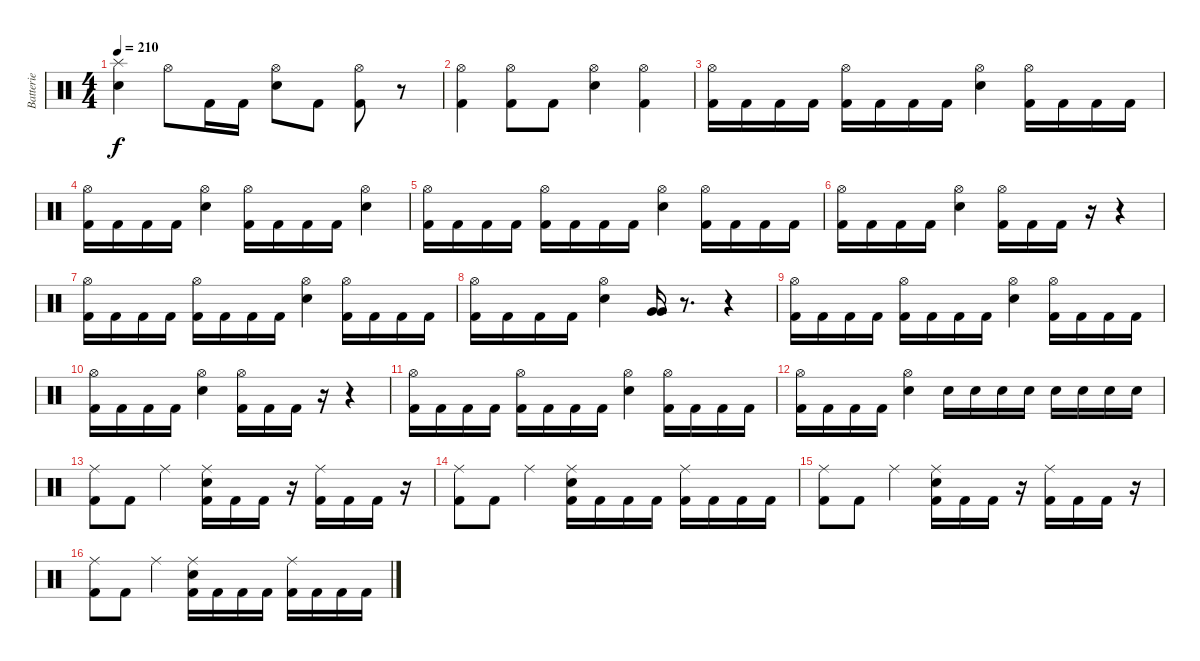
\track ("Batterie" "Batterie") {instrument percussion}
\staff {score}
\articulation defaults
\ts (4 4)
\tempo 210
\clef neutral
\ks c
("Splash (hit)" "Electric Snare (hit)").4{dy f} "Hi-Hat (open)".8 "Kick (hit) 2".16 "Kick (hit) 2".16 ("Hi-Hat (open)" "Electric Snare (hit)").8 "Kick (hit) 2".8 ("Hi-Hat (open)" "Kick (hit) 2").8 r.8 |
("Hi-Hat (open)" "Kick (hit) 2").4 ("Hi-Hat (open)" "Kick (hit) 2").8 "Kick (hit) 2".8 ("Hi-Hat (open)" "Electric Snare (hit)").4 ("Hi-Hat (open)" "Kick (hit) 2").4 |
("Hi-Hat (open)" "Kick (hit) 2").16 "Kick (hit) 2".16 "Kick (hit) 2".16 "Kick (hit) 2".16 ("Hi-Hat (open)" "Kick (hit) 2").16 "Kick (hit) 2".16 "Kick (hit) 2".16 "Kick (hit) 2".16 ("Hi-Hat (open)" "Electric Snare (hit)").4 ("Hi-Hat (open)" "Kick (hit) 2").16 "Kick (hit) 2".16 "Kick (hit) 2".16 "Kick (hit) 2".16 |
("Hi-Hat (open)" "Kick (hit) 2").16 "Kick (hit) 2".16 "Kick (hit) 2".16 "Kick (hit) 2".16 ("Hi-Hat (open)" "Electric Snare (hit)").4 ("Hi-Hat (open)" "Kick (hit) 2").16 "Kick (hit) 2".16 "Kick (hit) 2".16 "Kick (hit) 2".16 ("Hi-Hat (open)" "Electric Snare (hit)").4 |
("Hi-Hat (open)" "Kick (hit) 2").16 "Kick (hit) 2".16 "Kick (hit) 2".16 "Kick (hit) 2".16 ("Hi-Hat (open)" "Kick (hit) 2").16 "Kick (hit) 2".16 "Kick (hit) 2".16 "Kick (hit) 2".16 ("Hi-Hat (open)" "Electric Snare (hit)").4 ("Hi-Hat (open)" "Kick (hit) 2").16 "Kick (hit) 2".16 "Kick (hit) 2".16 "Kick (hit) 2".16 |
("Hi-Hat (open)" "Kick (hit) 2").16 "Kick (hit) 2".16 "Kick (hit) 2".16 "Kick (hit) 2".16 ("Hi-Hat (open)" "Electric Snare (hit)").4 ("Hi-Hat (open)" "Kick (hit) 2").16 "Kick (hit) 2".16 "Kick (hit) 2".16 r.16 r.4 |
("Hi-Hat (open)" "Kick (hit) 2").16 "Kick (hit) 2".16 "Kick (hit) 2".16 "Kick (hit) 2".16 ("Hi-Hat (open)" "Kick (hit) 2").16 "Kick (hit) 2".16 "Kick (hit) 2".16 "Kick (hit) 2".16 ("Hi-Hat (open)" "Electric Snare (hit)").4 ("Hi-Hat (open)" "Kick (hit) 2").16 "Kick (hit) 2".16 "Kick (hit) 2".16 "Kick (hit) 2".16 |
("Hi-Hat (open)" "Kick (hit) 2").16 "Kick (hit) 2".16 "Kick (hit) 2".16 "Kick (hit) 2".16 ("Hi-Hat (open)" "Electric Snare (hit)").4 ("Very Low Tom (hit)" "Very Low Tom (hit)").16 r.8{d} r.4 |
("Hi-Hat (open)" "Kick (hit) 2").16 "Kick (hit) 2".16 "Kick (hit) 2".16 "Kick (hit) 2".16 ("Hi-Hat (open)" "Kick (hit) 2").16 "Kick (hit) 2".16 "Kick (hit) 2".16 "Kick (hit) 2".16 ("Hi-Hat (open)" "Electric Snare (hit)").4 ("Hi-Hat (open)" "Kick (hit) 2").16 "Kick (hit) 2".16 "Kick (hit) 2".16 "Kick (hit) 2".16 |
("Hi-Hat (open)" "Kick (hit) 2").16 "Kick (hit) 2".16 "Kick (hit) 2".16 "Kick (hit) 2".16 ("Hi-Hat (open)" "Electric Snare (hit)").4 ("Hi-Hat (open)" "Kick (hit) 2").16 "Kick (hit) 2".16 "Kick (hit) 2".16 r.16 r.4 |
("Hi-Hat (open)" "Kick (hit) 2").16 "Kick (hit) 2".16 "Kick (hit) 2".16 "Kick (hit) 2".16 ("Hi-Hat (open)" "Kick (hit) 2").16 "Kick (hit) 2".16 "Kick (hit) 2".16 "Kick (hit) 2".16 ("Hi-Hat (open)" "Electric Snare (hit)").4 ("Hi-Hat (open)" "Kick (hit) 2").16 "Kick (hit) 2".16 "Kick (hit) 2".16 "Kick (hit) 2".16 |
("Hi-Hat (open)" "Kick (hit) 2").16 "Kick (hit) 2".16 "Kick (hit) 2".16 "Kick (hit) 2".16 ("Hi-Hat (open)" "Electric Snare (hit)").4 "Electric Snare (hit)".16 "Electric Snare (hit)".16 "Electric Snare (hit)".16 "Electric Snare (hit)".16 "Electric Snare (hit)".16 "Electric Snare (hit)".16 "Electric Snare (hit)".16 "Electric Snare (hit)".16 |
("Ride (middle)" "Kick (hit) 2").8 "Kick (hit) 2".8 "Ride (middle)".4 ("Ride (middle)" "Electric Snare (hit)" "Kick (hit) 2").16 "Kick (hit) 2".16 "Kick (hit) 2".16 r.16 ("Ride (middle)" "Kick (hit) 2").16 "Kick (hit) 2".16 "Kick (hit) 2".16 r.16 |
("Ride (middle)" "Kick (hit) 2").8 "Kick (hit) 2".8 "Ride (middle)".4 ("Ride (middle)" "Electric Snare (hit)" "Kick (hit) 2").16 "Kick (hit) 2".16 "Kick (hit) 2".16 "Kick (hit) 2".16 ("Ride (middle)" "Kick (hit) 2").16 "Kick (hit) 2".16 "Kick (hit) 2".16 "Kick (hit) 2".16 |
("Ride (middle)" "Kick (hit) 2").8 "Kick (hit) 2".8 "Ride (middle)".4 ("Ride (middle)" "Electric Snare (hit)" "Kick (hit) 2").16 "Kick (hit) 2".16 "Kick (hit) 2".16 r.16 ("Ride (middle)" "Kick (hit) 2").16 "Kick (hit) 2".16 "Kick (hit) 2".16 r.16 |
("Ride (middle)" "Kick (hit) 2").8 "Kick (hit) 2".8 "Ride (middle)".4 ("Ride (middle)" "Electric Snare (hit)" "Kick (hit) 2").16 "Kick (hit) 2".16 "Kick (hit) 2".16 "Kick (hit) 2".16 ("Ride (middle)" "Kick (hit) 2").16 "Kick (hit) 2".16 "Kick (hit) 2".16 "Kick (hit) 2".16
